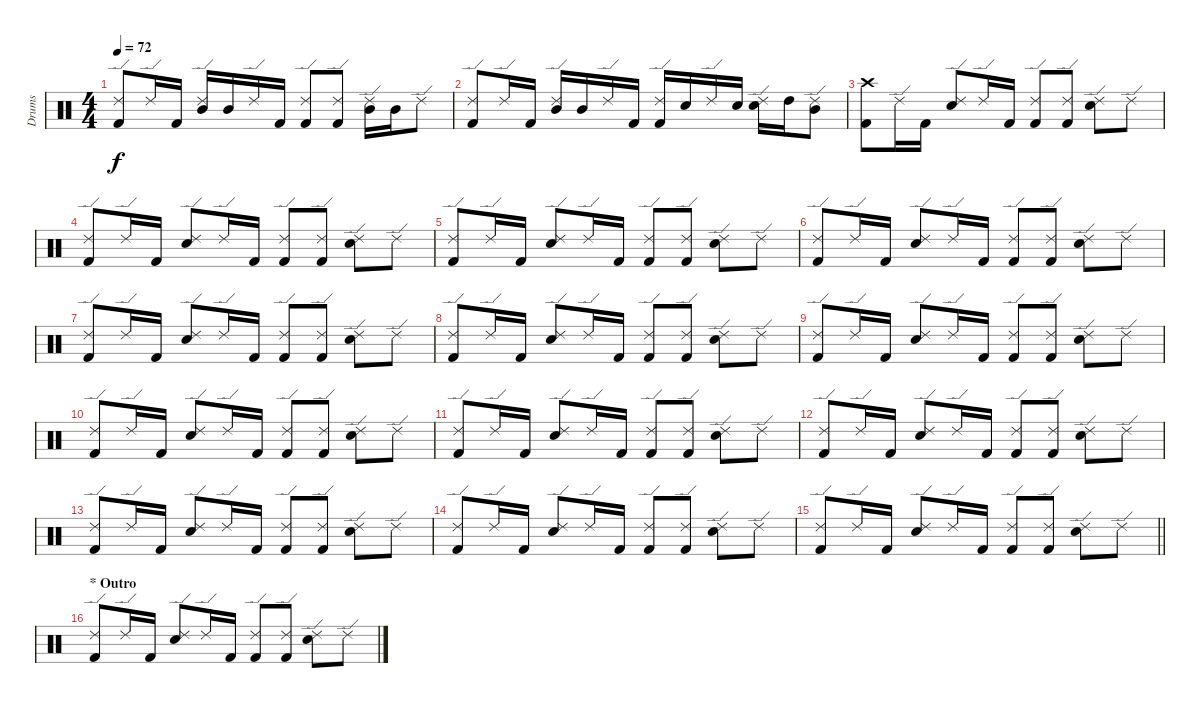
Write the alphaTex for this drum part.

\track ("Drums" "Drums") {instrument percussion}
\staff {score}
\articulation defaults
\ts (4 4)
\tempo 72
\clef neutral
\ks c
("Ride (edge) 2" "Kick (hit) 2").8{dy f} "Ride (edge) 2".16 "Kick (hit) 2".16 ("Ride (edge) 2" "Mid Tom (hit)").16 "Mid Tom (hit)".16 "Ride (edge) 2".16 "Kick (hit) 2".16 ("Ride (edge) 2" "Kick (hit) 2").8 ("Ride (edge) 2" "Kick (hit) 2").8 ("Ride (edge) 2" "Mid Tom (hit)").16 "Mid Tom (hit)".16 "Ride (edge) 2".8 |
("Ride (edge) 2" "Kick (hit) 2").8 "Ride (edge) 2".16 "Kick (hit) 2".16 ("Ride (edge) 2" "Mid Tom (hit)").16 "Mid Tom (hit)".16 "Ride (edge) 2".16 "Kick (hit) 2".16 ("Ride (edge) 2" "Kick (hit) 2").16 "Electric Snare (hit)".16 "Ride (edge) 2".16 "Electric Snare (hit)".16 ("Ride (edge) 2" "Electric Snare (hit)").16 "High Tom (hit)".16 ("Ride (edge) 2" "Mid Tom (hit)").8 |
("Crash high (hit)" "Kick (hit) 2").8 "Ride (edge) 2".16 "Kick (hit) 2".16 ("Ride (edge) 2" "Electric Snare (hit)").8 "Ride (edge) 2".16 "Kick (hit) 2".16 ("Ride (edge) 2" "Kick (hit) 2").8 ("Ride (edge) 2" "Kick (hit) 2").8 ("Ride (edge) 2" "Electric Snare (hit)").8 "Ride (edge) 2".8 |
("Ride (edge) 2" "Kick (hit) 2").8 "Ride (edge) 2".16 "Kick (hit) 2".16 ("Ride (edge) 2" "Electric Snare (hit)").8 "Ride (edge) 2".16 "Kick (hit) 2".16 ("Ride (edge) 2" "Kick (hit) 2").8 ("Ride (edge) 2" "Kick (hit) 2").8 ("Ride (edge) 2" "Electric Snare (hit)").8 "Ride (edge) 2".8 |
("Ride (edge) 2" "Kick (hit) 2").8 "Ride (edge) 2".16 "Kick (hit) 2".16 ("Ride (edge) 2" "Electric Snare (hit)").8 "Ride (edge) 2".16 "Kick (hit) 2".16 ("Ride (edge) 2" "Kick (hit) 2").8 ("Ride (edge) 2" "Kick (hit) 2").8 ("Ride (edge) 2" "Electric Snare (hit)").8 "Ride (edge) 2".8 |
("Ride (edge) 2" "Kick (hit) 2").8 "Ride (edge) 2".16 "Kick (hit) 2".16 ("Ride (edge) 2" "Electric Snare (hit)").8 "Ride (edge) 2".16 "Kick (hit) 2".16 ("Ride (edge) 2" "Kick (hit) 2").8 ("Ride (edge) 2" "Kick (hit) 2").8 ("Ride (edge) 2" "Electric Snare (hit)").8 "Ride (edge) 2".8 |
("Ride (edge) 2" "Kick (hit) 2").8 "Ride (edge) 2".16 "Kick (hit) 2".16 ("Ride (edge) 2" "Electric Snare (hit)").8 "Ride (edge) 2".16 "Kick (hit) 2".16 ("Ride (edge) 2" "Kick (hit) 2").8 ("Ride (edge) 2" "Kick (hit) 2").8 ("Ride (edge) 2" "Electric Snare (hit)").8 "Ride (edge) 2".8 |
("Ride (edge) 2" "Kick (hit) 2").8 "Ride (edge) 2".16 "Kick (hit) 2".16 ("Ride (edge) 2" "Electric Snare (hit)").8 "Ride (edge) 2".16 "Kick (hit) 2".16 ("Ride (edge) 2" "Kick (hit) 2").8 ("Ride (edge) 2" "Kick (hit) 2").8 ("Ride (edge) 2" "Electric Snare (hit)").8 "Ride (edge) 2".8 |
("Ride (edge) 2" "Kick (hit) 2").8 "Ride (edge) 2".16 "Kick (hit) 2".16 ("Ride (edge) 2" "Electric Snare (hit)").8 "Ride (edge) 2".16 "Kick (hit) 2".16 ("Ride (edge) 2" "Kick (hit) 2").8 ("Ride (edge) 2" "Kick (hit) 2").8 ("Ride (edge) 2" "Electric Snare (hit)").8 "Ride (edge) 2".8 |
("Ride (edge) 2" "Kick (hit) 2").8 "Ride (edge) 2".16 "Kick (hit) 2".16 ("Ride (edge) 2" "Electric Snare (hit)").8 "Ride (edge) 2".16 "Kick (hit) 2".16 ("Ride (edge) 2" "Kick (hit) 2").8 ("Ride (edge) 2" "Kick (hit) 2").8 ("Ride (edge) 2" "Electric Snare (hit)").8 "Ride (edge) 2".8 |
("Ride (edge) 2" "Kick (hit) 2").8 "Ride (edge) 2".16 "Kick (hit) 2".16 ("Ride (edge) 2" "Electric Snare (hit)").8 "Ride (edge) 2".16 "Kick (hit) 2".16 ("Ride (edge) 2" "Kick (hit) 2").8 ("Ride (edge) 2" "Kick (hit) 2").8 ("Ride (edge) 2" "Electric Snare (hit)").8 "Ride (edge) 2".8 |
("Ride (edge) 2" "Kick (hit) 2").8 "Ride (edge) 2".16 "Kick (hit) 2".16 ("Ride (edge) 2" "Electric Snare (hit)").8 "Ride (edge) 2".16 "Kick (hit) 2".16 ("Ride (edge) 2" "Kick (hit) 2").8 ("Ride (edge) 2" "Kick (hit) 2").8 ("Ride (edge) 2" "Electric Snare (hit)").8 "Ride (edge) 2".8 |
("Ride (edge) 2" "Kick (hit) 2").8 "Ride (edge) 2".16 "Kick (hit) 2".16 ("Ride (edge) 2" "Electric Snare (hit)").8 "Ride (edge) 2".16 "Kick (hit) 2".16 ("Ride (edge) 2" "Kick (hit) 2").8 ("Ride (edge) 2" "Kick (hit) 2").8 ("Ride (edge) 2" "Electric Snare (hit)").8 "Ride (edge) 2".8 |
("Ride (edge) 2" "Kick (hit) 2").8 "Ride (edge) 2".16 "Kick (hit) 2".16 ("Ride (edge) 2" "Electric Snare (hit)").8 "Ride (edge) 2".16 "Kick (hit) 2".16 ("Ride (edge) 2" "Kick (hit) 2").8 ("Ride (edge) 2" "Kick (hit) 2").8 ("Ride (edge) 2" "Electric Snare (hit)").8 "Ride (edge) 2".8 |
\barLineRight lightlight
("Ride (edge) 2" "Kick (hit) 2").8 "Ride (edge) 2".16 "Kick (hit) 2".16 ("Ride (edge) 2" "Electric Snare (hit)").8 "Ride (edge) 2".16 "Kick (hit) 2".16 ("Ride (edge) 2" "Kick (hit) 2").8 ("Ride (edge) 2" "Kick (hit) 2").8 ("Ride (edge) 2" "Electric Snare (hit)").8 "Ride (edge) 2".8 |
\section ("" "* Outro")
("Ride (edge) 2" "Kick (hit) 2").8 "Ride (edge) 2".16 "Kick (hit) 2".16 ("Ride (edge) 2" "Electric Snare (hit)").8 "Ride (edge) 2".16 "Kick (hit) 2".16 ("Ride (edge) 2" "Kick (hit) 2").8 ("Ride (edge) 2" "Kick (hit) 2").8 ("Ride (edge) 2" "Electric Snare (hit)").8 "Ride (edge) 2".8
